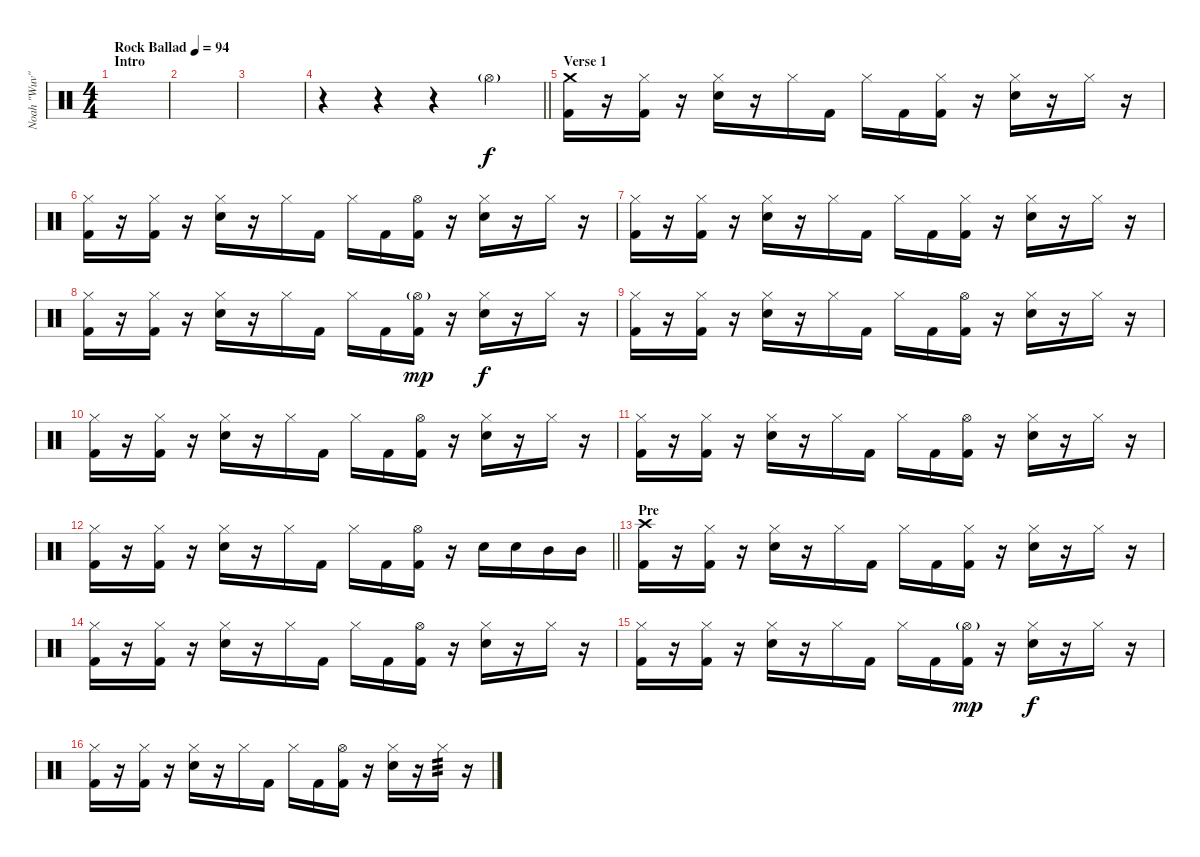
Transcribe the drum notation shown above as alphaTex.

\track ("Noah \"Wuv\" Bernardo" "Noah \"Wuv\"") {instrument percussion}
\staff {score}
\articulation defaults
\ts (4 4)
\section ("" "Intro")
\tempo (94 "Rock Ballad")
\clef neutral
\ks c
|
|
|
\barLineRight lightlight
r.4 r.4 r.4 "Hi-Hat (open)"{g}.4 |
\section ("" "Verse 1")
("Crash medium (hit)" "Kick (hit) 2").16{dy f} r.16 ("Hi-Hat (closed)" "Kick (hit) 2").16 r.16 ("Hi-Hat (closed)" "Electric Snare (hit)").16 r.16 "Hi-Hat (closed)".16 "Kick (hit) 2".16 "Hi-Hat (closed)".16 "Kick (hit) 2".16 ("Hi-Hat (closed)" "Kick (hit) 2").16 r.16 ("Hi-Hat (closed)" "Electric Snare (hit)").16 r.16 "Hi-Hat (closed)".16 r.16 |
("Hi-Hat (closed)" "Kick (hit) 2").16 r.16 ("Hi-Hat (closed)" "Kick (hit) 2").16 r.16 ("Hi-Hat (closed)" "Electric Snare (hit)").16 r.16 "Hi-Hat (closed)".16 "Kick (hit) 2".16 "Hi-Hat (closed)".16 "Kick (hit) 2".16 ("Hi-Hat (open)" "Kick (hit) 2").16 r.16 ("Hi-Hat (closed)" "Electric Snare (hit)").16 r.16 "Hi-Hat (closed)".16 r.16 |
("Hi-Hat (closed)" "Kick (hit) 2").16 r.16 ("Hi-Hat (closed)" "Kick (hit) 2").16 r.16 ("Hi-Hat (closed)" "Electric Snare (hit)").16 r.16 "Hi-Hat (closed)".16 "Kick (hit) 2".16 "Hi-Hat (closed)".16 "Kick (hit) 2".16 ("Hi-Hat (closed)" "Kick (hit) 2").16 r.16 ("Hi-Hat (closed)" "Electric Snare (hit)").16 r.16 "Hi-Hat (closed)".16 r.16 |
("Hi-Hat (closed)" "Kick (hit) 2").16 r.16 ("Hi-Hat (closed)" "Kick (hit) 2").16 r.16 ("Hi-Hat (closed)" "Electric Snare (hit)").16 r.16 "Hi-Hat (closed)".16 "Kick (hit) 2".16 "Hi-Hat (closed)".16 "Kick (hit) 2".16 ("Hi-Hat (open)"{g} "Kick (hit) 2").16{dy mp} r.16 ("Hi-Hat (closed)" "Electric Snare (hit)").16{dy f} r.16 "Hi-Hat (closed)".16 r.16 |
("Hi-Hat (closed)" "Kick (hit) 2").16 r.16 ("Hi-Hat (closed)" "Kick (hit) 2").16 r.16 ("Hi-Hat (closed)" "Electric Snare (hit)").16 r.16 "Hi-Hat (closed)".16 "Kick (hit) 2".16 "Hi-Hat (closed)".16 "Kick (hit) 2".16 ("Hi-Hat (open)" "Kick (hit) 2").16 r.16 ("Hi-Hat (closed)" "Electric Snare (hit)").16 r.16 "Hi-Hat (closed)".16 r.16 |
("Hi-Hat (closed)" "Kick (hit) 2").16 r.16 ("Hi-Hat (closed)" "Kick (hit) 2").16 r.16 ("Hi-Hat (closed)" "Electric Snare (hit)").16 r.16 "Hi-Hat (closed)".16 "Kick (hit) 2".16 "Hi-Hat (closed)".16 "Kick (hit) 2".16 ("Hi-Hat (open)" "Kick (hit) 2").16 r.16 ("Hi-Hat (closed)" "Electric Snare (hit)").16 r.16 "Hi-Hat (closed)".16 r.16 |
("Hi-Hat (closed)" "Kick (hit) 2").16 r.16 ("Hi-Hat (closed)" "Kick (hit) 2").16 r.16 ("Hi-Hat (closed)" "Electric Snare (hit)").16 r.16 "Hi-Hat (closed)".16 "Kick (hit) 2".16 "Hi-Hat (closed)".16 "Kick (hit) 2".16 ("Hi-Hat (open)" "Kick (hit) 2").16 r.16 ("Hi-Hat (closed)" "Electric Snare (hit)").16 r.16 "Hi-Hat (closed)".16 r.16 |
\barLineRight lightlight
("Hi-Hat (closed)" "Kick (hit) 2").16 r.16 ("Hi-Hat (closed)" "Kick (hit) 2").16 r.16 ("Hi-Hat (closed)" "Electric Snare (hit)").16 r.16 "Hi-Hat (closed)".16 "Kick (hit) 2".16 "Hi-Hat (closed)".16 "Kick (hit) 2".16 ("Hi-Hat (open)" "Kick (hit) 2").16 r.16 "Electric Snare (hit)".16 "Electric Snare (hit)".16 "Mid Tom (hit)".16 "Mid Tom (hit)".16 |
\section ("" "Pre")
("Crash high (hit)" "Kick (hit) 2").16 r.16 ("Hi-Hat (closed)" "Kick (hit) 2").16 r.16 ("Hi-Hat (closed)" "Electric Snare (hit)").16 r.16 "Hi-Hat (closed)".16 "Kick (hit) 2".16 "Hi-Hat (closed)".16 "Kick (hit) 2".16 ("Hi-Hat (closed)" "Kick (hit) 2").16 r.16 ("Hi-Hat (closed)" "Electric Snare (hit)").16 r.16 "Hi-Hat (closed)".16 r.16 |
("Hi-Hat (closed)" "Kick (hit) 2").16 r.16 ("Hi-Hat (closed)" "Kick (hit) 2").16 r.16 ("Hi-Hat (closed)" "Electric Snare (hit)").16 r.16 "Hi-Hat (closed)".16 "Kick (hit) 2".16 "Hi-Hat (closed)".16 "Kick (hit) 2".16 ("Hi-Hat (open)" "Kick (hit) 2").16 r.16 ("Hi-Hat (closed)" "Electric Snare (hit)").16 r.16 "Hi-Hat (closed)".16 r.16 |
("Hi-Hat (closed)" "Kick (hit) 2").16 r.16 ("Hi-Hat (closed)" "Kick (hit) 2").16 r.16 ("Hi-Hat (closed)" "Electric Snare (hit)").16 r.16 "Hi-Hat (closed)".16 "Kick (hit) 2".16 "Hi-Hat (closed)".16 "Kick (hit) 2".16 ("Hi-Hat (open)"{g} "Kick (hit) 2").16{dy mp} r.16 ("Hi-Hat (closed)" "Electric Snare (hit)").16{dy f} r.16 "Hi-Hat (closed)".16 r.16 |
("Hi-Hat (closed)" "Kick (hit) 2").16 r.16 ("Hi-Hat (closed)" "Kick (hit) 2").16 r.16 ("Hi-Hat (closed)" "Electric Snare (hit)").16 r.16 "Hi-Hat (closed)".16 "Kick (hit) 2".16 "Hi-Hat (closed)".16 "Kick (hit) 2".16 ("Hi-Hat (open)" "Kick (hit) 2").16 r.16 ("Hi-Hat (closed)" "Electric Snare (hit)").16 r.16 "Hi-Hat (closed)".16{tp 3} r.16
